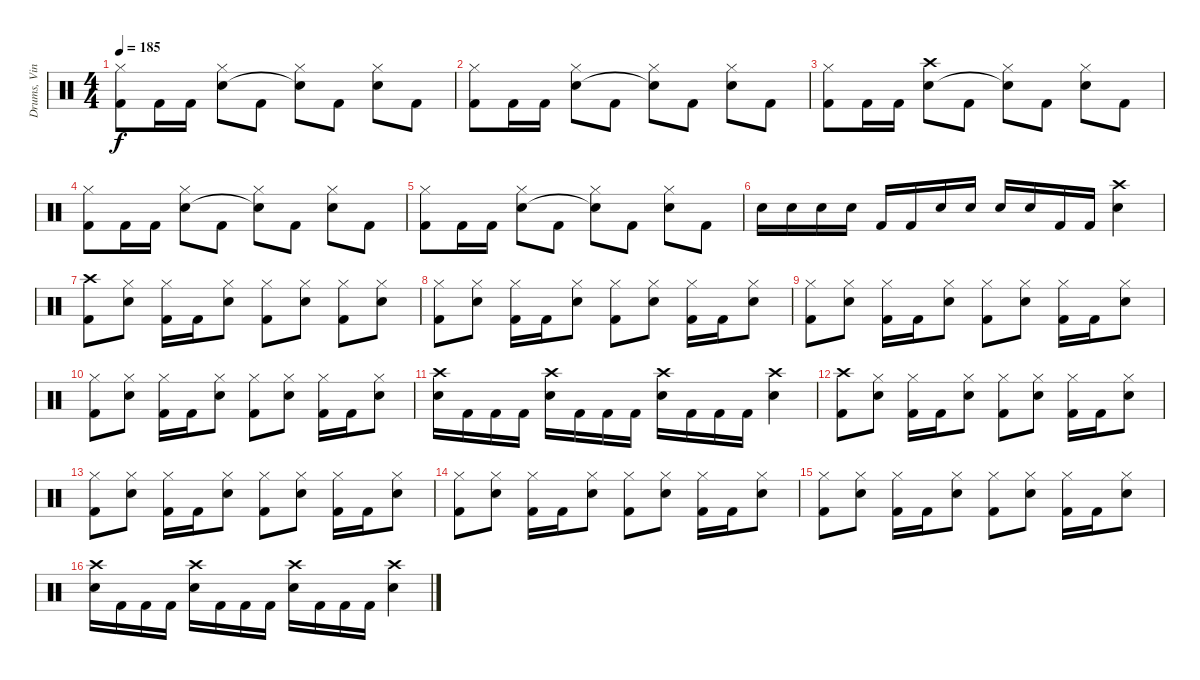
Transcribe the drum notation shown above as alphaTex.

\track ("Drums, Vinnie" "Drums, Vin") {instrument percussion}
\staff {score}
\articulation defaults
\ts (4 4)
\tempo 185
\clef neutral
\ks c
("Hi-Hat (closed)" "Kick (hit) 2").8{dy f} "Kick (hit) 2".16 "Kick (hit) 2".16 ("Hi-Hat (closed)" "Electric Snare (hit)").8 "Kick (hit) 2".8 ("Hi-Hat (closed)" "Snare (hit)"{t}).8 "Kick (hit) 2".8 ("Hi-Hat (closed)" "Electric Snare (hit)").8 "Kick (hit) 2".8 |
("Hi-Hat (closed)" "Kick (hit) 2").8 "Kick (hit) 2".16 "Kick (hit) 2".16 ("Hi-Hat (closed)" "Electric Snare (hit)").8 "Kick (hit) 2".8 ("Hi-Hat (closed)" "Snare (hit)"{t}).8 "Kick (hit) 2".8 ("Hi-Hat (closed)" "Electric Snare (hit)").8 "Kick (hit) 2".8 |
("Hi-Hat (closed)" "Kick (hit) 2").8 "Kick (hit) 2".16 "Kick (hit) 2".16 ("Crash high (hit)" "Electric Snare (hit)").8 "Kick (hit) 2".8 ("Hi-Hat (closed)" "Snare (hit)"{t}).8 "Kick (hit) 2".8 ("Hi-Hat (closed)" "Electric Snare (hit)").8 "Kick (hit) 2".8 |
("Hi-Hat (closed)" "Kick (hit) 2").8 "Kick (hit) 2".16 "Kick (hit) 2".16 ("Hi-Hat (closed)" "Electric Snare (hit)").8 "Kick (hit) 2".8 ("Hi-Hat (closed)" "Snare (hit)"{t}).8 "Kick (hit) 2".8 ("Hi-Hat (closed)" "Electric Snare (hit)").8 "Kick (hit) 2".8 |
("Hi-Hat (closed)" "Kick (hit) 2").8 "Kick (hit) 2".16 "Kick (hit) 2".16 ("Hi-Hat (closed)" "Electric Snare (hit)").8 "Kick (hit) 2".8 ("Hi-Hat (closed)" "Snare (hit)"{t}).8 "Kick (hit) 2".8 ("Hi-Hat (closed)" "Electric Snare (hit)").8 "Kick (hit) 2".8 |
"Electric Snare (hit)".16 "Electric Snare (hit)".16 "Electric Snare (hit)".16 "Electric Snare (hit)".16 "Kick (hit) 2".16 "Kick (hit) 2".16 "Electric Snare (hit)".16 "Electric Snare (hit)".16 "Electric Snare (hit)".16 "Electric Snare (hit)".16 "Kick (hit) 2".16 "Kick (hit) 2".16 ("Crash high (hit)" "Electric Snare (hit)").4 |
("Crash high (hit)" "Kick (hit) 2").8 ("Hi-Hat (closed)" "Electric Snare (hit)").8 ("Hi-Hat (closed)" "Kick (hit) 2").16 "Kick (hit) 2".16 ("Hi-Hat (closed)" "Electric Snare (hit)").8 ("Hi-Hat (closed)" "Kick (hit) 2").8 ("Hi-Hat (closed)" "Electric Snare (hit)").8 ("Hi-Hat (closed)" "Kick (hit) 2").8 ("Hi-Hat (closed)" "Electric Snare (hit)").8 |
("Hi-Hat (closed)" "Kick (hit) 2").8 ("Hi-Hat (closed)" "Electric Snare (hit)").8 ("Hi-Hat (closed)" "Kick (hit) 2").16 "Kick (hit) 2".16 ("Hi-Hat (closed)" "Electric Snare (hit)").8 ("Hi-Hat (closed)" "Kick (hit) 2").8 ("Hi-Hat (closed)" "Electric Snare (hit)").8 ("Hi-Hat (closed)" "Kick (hit) 2").16 "Kick (hit) 2".16 ("Hi-Hat (closed)" "Electric Snare (hit)").8 |
("Hi-Hat (closed)" "Kick (hit) 2").8 ("Hi-Hat (closed)" "Electric Snare (hit)").8 ("Hi-Hat (closed)" "Kick (hit) 2").16 "Kick (hit) 2".16 ("Hi-Hat (closed)" "Electric Snare (hit)").8 ("Hi-Hat (closed)" "Kick (hit) 2").8 ("Hi-Hat (closed)" "Electric Snare (hit)").8 ("Hi-Hat (closed)" "Kick (hit) 2").16 "Kick (hit) 2".16 ("Hi-Hat (closed)" "Electric Snare (hit)").8 |
("Hi-Hat (closed)" "Kick (hit) 2").8 ("Hi-Hat (closed)" "Electric Snare (hit)").8 ("Hi-Hat (closed)" "Kick (hit) 2").16 "Kick (hit) 2".16 ("Hi-Hat (closed)" "Electric Snare (hit)").8 ("Hi-Hat (closed)" "Kick (hit) 2").8 ("Hi-Hat (closed)" "Electric Snare (hit)").8 ("Hi-Hat (closed)" "Kick (hit) 2").16 "Kick (hit) 2".16 ("Hi-Hat (closed)" "Electric Snare (hit)").8 |
("Crash high (hit)" "Electric Snare (hit)").16 "Kick (hit) 2".16 "Kick (hit) 2".16 "Kick (hit) 2".16 ("Crash high (hit)" "Electric Snare (hit)").16 "Kick (hit) 2".16 "Kick (hit) 2".16 "Kick (hit) 2".16 ("Crash high (hit)" "Electric Snare (hit)").16 "Kick (hit) 2".16 "Kick (hit) 2".16 "Kick (hit) 2".16 ("Crash high (hit)" "Electric Snare (hit)").4 |
("Crash high (hit)" "Kick (hit) 2").8 ("Hi-Hat (closed)" "Electric Snare (hit)").8 ("Hi-Hat (closed)" "Kick (hit) 2").16 "Kick (hit) 2".16 ("Hi-Hat (closed)" "Electric Snare (hit)").8 ("Hi-Hat (closed)" "Kick (hit) 2").8 ("Hi-Hat (closed)" "Electric Snare (hit)").8 ("Hi-Hat (closed)" "Kick (hit) 2").16 "Kick (hit) 2".16 ("Hi-Hat (closed)" "Electric Snare (hit)").8 |
("Hi-Hat (closed)" "Kick (hit) 2").8 ("Hi-Hat (closed)" "Electric Snare (hit)").8 ("Hi-Hat (closed)" "Kick (hit) 2").16 "Kick (hit) 2".16 ("Hi-Hat (closed)" "Electric Snare (hit)").8 ("Hi-Hat (closed)" "Kick (hit) 2").8 ("Hi-Hat (closed)" "Electric Snare (hit)").8 ("Hi-Hat (closed)" "Kick (hit) 2").16 "Kick (hit) 2".16 ("Hi-Hat (closed)" "Electric Snare (hit)").8 |
("Hi-Hat (closed)" "Kick (hit) 2").8 ("Hi-Hat (closed)" "Electric Snare (hit)").8 ("Hi-Hat (closed)" "Kick (hit) 2").16 "Kick (hit) 2".16 ("Hi-Hat (closed)" "Electric Snare (hit)").8 ("Hi-Hat (closed)" "Kick (hit) 2").8 ("Hi-Hat (closed)" "Electric Snare (hit)").8 ("Hi-Hat (closed)" "Kick (hit) 2").16 "Kick (hit) 2".16 ("Hi-Hat (closed)" "Electric Snare (hit)").8 |
("Hi-Hat (closed)" "Kick (hit) 2").8 ("Hi-Hat (closed)" "Electric Snare (hit)").8 ("Hi-Hat (closed)" "Kick (hit) 2").16 "Kick (hit) 2".16 ("Hi-Hat (closed)" "Electric Snare (hit)").8 ("Hi-Hat (closed)" "Kick (hit) 2").8 ("Hi-Hat (closed)" "Electric Snare (hit)").8 ("Hi-Hat (closed)" "Kick (hit) 2").16 "Kick (hit) 2".16 ("Hi-Hat (closed)" "Electric Snare (hit)").8 |
("Crash high (hit)" "Electric Snare (hit)").16 "Kick (hit) 2".16 "Kick (hit) 2".16 "Kick (hit) 2".16 ("Crash high (hit)" "Electric Snare (hit)").16 "Kick (hit) 2".16 "Kick (hit) 2".16 "Kick (hit) 2".16 ("Crash high (hit)" "Electric Snare (hit)").16 "Kick (hit) 2".16 "Kick (hit) 2".16 "Kick (hit) 2".16 ("Crash high (hit)" "Electric Snare (hit)").4
